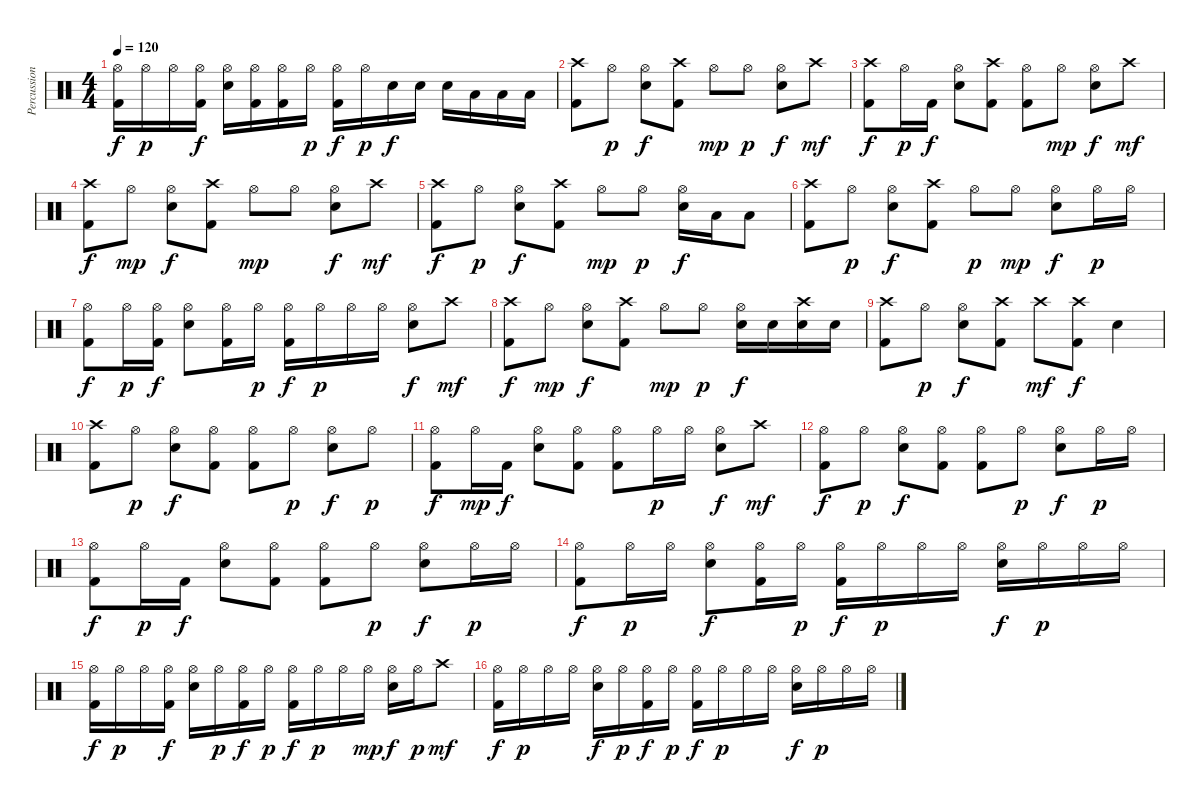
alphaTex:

\track ("Percussion" "Percussion") {instrument percussion}
\staff {score}
\articulation defaults
\ts (4 4)
\tempo 120
\clef neutral
\ks c
("Hi-Hat (open)" "Kick (hit) 2").16{dy f} "Hi-Hat (open)".16{dy p} "Hi-Hat (open)".16 ("Hi-Hat (open)" "Kick (hit) 2").16{dy f} ("Hi-Hat (open)" "Electric Snare (hit)").16 ("Hi-Hat (open)" "Kick (hit) 2").16 ("Hi-Hat (open)" "Kick (hit) 2").16 "Hi-Hat (open)".16{dy p} ("Hi-Hat (open)" "Kick (hit) 2").16{dy f} "Hi-Hat (open)".16{dy p} "Electric Snare (hit)".16{dy f} "Electric Snare (hit)".16 "Electric Snare (hit)".16 "Low Tom (hit)".16 "Low Tom (hit)".16 "Low Floor Tom (hit)".16 |
("Crash high (hit)" "Kick (hit) 2").8 "Hi-Hat (open)".8{dy p} ("Hi-Hat (open)" "Electric Snare (hit)").8{dy f} ("Crash high (hit)" "Kick (hit) 2").8 "Hi-Hat (open)".8{dy mp} "Hi-Hat (open)".8{dy p} ("Hi-Hat (open)" "Electric Snare (hit)").8{dy f} "Crash high (hit)".8{dy mf} |
("Crash high (hit)" "Kick (hit) 2").8{dy f} "Hi-Hat (open)".16{dy p} "Kick (hit) 2".16{dy f} ("Hi-Hat (open)" "Electric Snare (hit)").8 ("Crash high (hit)" "Kick (hit) 2").8 ("Hi-Hat (open)" "Kick (hit) 2").8 "Hi-Hat (open)".8{dy mp} ("Hi-Hat (open)" "Electric Snare (hit)").8{dy f} "Crash high (hit)".8{dy mf} |
("Crash high (hit)" "Kick (hit) 2").8{dy f} "Hi-Hat (open)".8{dy mp} ("Hi-Hat (open)" "Electric Snare (hit)").8{dy f} ("Crash high (hit)" "Kick (hit) 2").8 "Hi-Hat (open)".8{dy mp} "Hi-Hat (open)".8 ("Hi-Hat (open)" "Electric Snare (hit)").8{dy f} "Crash high (hit)".8{dy mf} |
("Crash high (hit)" "Kick (hit) 2").8{dy f} "Hi-Hat (open)".8{dy p} ("Hi-Hat (open)" "Electric Snare (hit)").8{dy f} ("Crash high (hit)" "Kick (hit) 2").8 "Hi-Hat (open)".8{dy mp} "Hi-Hat (open)".8{dy p} ("Hi-Hat (open)" "Electric Snare (hit)").16{dy f} "Low Tom (hit)".16 "Low Floor Tom (hit)".8 |
("Crash high (hit)" "Kick (hit) 2").8 "Hi-Hat (open)".8{dy p} ("Hi-Hat (open)" "Electric Snare (hit)").8{dy f} ("Crash high (hit)" "Kick (hit) 2").8 "Hi-Hat (open)".8{dy p} "Hi-Hat (open)".8{dy mp} ("Hi-Hat (open)" "Electric Snare (hit)").8{dy f} "Hi-Hat (open)".16{dy p} "Hi-Hat (open)".16 |
("Hi-Hat (open)" "Kick (hit) 2").8{dy f} "Hi-Hat (open)".16{dy p} ("Hi-Hat (open)" "Kick (hit) 2").16{dy f} ("Hi-Hat (open)" "Electric Snare (hit)").8 ("Hi-Hat (open)" "Kick (hit) 2").16 "Hi-Hat (open)".16{dy p} ("Hi-Hat (open)" "Kick (hit) 2").16{dy f} "Hi-Hat (open)".16{dy p} "Hi-Hat (open)".16 "Hi-Hat (open)".16 ("Hi-Hat (open)" "Electric Snare (hit)").8{dy f} "Crash high (hit)".8{dy mf} |
("Crash high (hit)" "Kick (hit) 2").8{dy f} "Hi-Hat (open)".8{dy mp} ("Hi-Hat (open)" "Electric Snare (hit)").8{dy f} ("Crash high (hit)" "Kick (hit) 2").8 "Hi-Hat (open)".8{dy mp} "Hi-Hat (open)".8{dy p} ("Hi-Hat (open)" "Electric Snare (hit)").16{dy f} "Electric Snare (hit)".16 ("Crash high (hit)" "Electric Snare (hit)").16 "Electric Snare (hit)".16 |
("Crash high (hit)" "Kick (hit) 2").8 "Hi-Hat (open)".8{dy p} ("Hi-Hat (open)" "Electric Snare (hit)").8{dy f} ("Crash high (hit)" "Kick (hit) 2").8 "Crash high (hit)".8{dy mf} ("Crash high (hit)" "Kick (hit) 2").8{dy f} "Electric Snare (hit)".4 |
("Crash high (hit)" "Kick (hit) 2").8 "Hi-Hat (open)".8{dy p} ("Hi-Hat (open)" "Electric Snare (hit)").8{dy f} ("Hi-Hat (open)" "Kick (hit) 2").8 ("Hi-Hat (open)" "Kick (hit) 2").8 "Hi-Hat (open)".8{dy p} ("Hi-Hat (open)" "Electric Snare (hit)").8{dy f} "Hi-Hat (open)".8{dy p} |
("Hi-Hat (open)" "Kick (hit) 2").8{dy f} "Hi-Hat (open)".16{dy mp} "Kick (hit) 2".16{dy f} ("Hi-Hat (open)" "Electric Snare (hit)").8 ("Hi-Hat (open)" "Kick (hit) 2").8 ("Hi-Hat (open)" "Kick (hit) 2").8 "Hi-Hat (open)".16{dy p} "Hi-Hat (open)".16 ("Hi-Hat (open)" "Electric Snare (hit)").8{dy f} "Crash high (hit)".8{dy mf} |
("Hi-Hat (open)" "Kick (hit) 2").8{dy f} "Hi-Hat (open)".8{dy p} ("Hi-Hat (open)" "Electric Snare (hit)").8{dy f} ("Hi-Hat (open)" "Kick (hit) 2").8 ("Hi-Hat (open)" "Kick (hit) 2").8 "Hi-Hat (open)".8{dy p} ("Hi-Hat (open)" "Electric Snare (hit)").8{dy f} "Hi-Hat (open)".16{dy p} "Hi-Hat (open)".16 |
("Hi-Hat (open)" "Kick (hit) 2").8{dy f} "Hi-Hat (open)".16{dy p} "Kick (hit) 2".16{dy f} ("Hi-Hat (open)" "Electric Snare (hit)").8 ("Hi-Hat (open)" "Kick (hit) 2").8 ("Hi-Hat (open)" "Kick (hit) 2").8 "Hi-Hat (open)".8{dy p} ("Hi-Hat (open)" "Electric Snare (hit)").8{dy f} "Hi-Hat (open)".16{dy p} "Hi-Hat (open)".16 |
("Hi-Hat (open)" "Kick (hit) 2").8{dy f} "Hi-Hat (open)".16{dy p} "Hi-Hat (open)".16 ("Hi-Hat (open)" "Electric Snare (hit)").8{dy f} ("Hi-Hat (open)" "Kick (hit) 2").16 "Hi-Hat (open)".16{dy p} ("Hi-Hat (open)" "Kick (hit) 2").16{dy f} "Hi-Hat (open)".16{dy p} "Hi-Hat (open)".16 "Hi-Hat (open)".16 ("Hi-Hat (open)" "Electric Snare (hit)").16{dy f} "Hi-Hat (open)".16{dy p} "Hi-Hat (open)".16 "Hi-Hat (open)".16 |
("Hi-Hat (open)" "Kick (hit) 2").16{dy f} "Hi-Hat (open)".16{dy p} "Hi-Hat (open)".16 ("Hi-Hat (open)" "Kick (hit) 2").16{dy f} ("Hi-Hat (open)" "Electric Snare (hit)").16 "Hi-Hat (open)".16{dy p} ("Hi-Hat (open)" "Kick (hit) 2").16{dy f} "Hi-Hat (open)".16{dy p} ("Hi-Hat (open)" "Kick (hit) 2").16{dy f} "Hi-Hat (open)".16{dy p} "Hi-Hat (open)".16 "Hi-Hat (open)".16{dy mp} ("Hi-Hat (open)" "Electric Snare (hit)").16{dy f} "Hi-Hat (open)".16{dy p} "Crash high (hit)".8{dy mf} |
("Hi-Hat (open)" "Kick (hit) 2").16{dy f} "Hi-Hat (open)".16{dy p} "Hi-Hat (open)".16 "Hi-Hat (open)".16 ("Hi-Hat (open)" "Electric Snare (hit)").16{dy f} "Hi-Hat (open)".16{dy p} ("Hi-Hat (open)" "Kick (hit) 2").16{dy f} "Hi-Hat (open)".16{dy p} ("Hi-Hat (open)" "Kick (hit) 2").16{dy f} "Hi-Hat (open)".16{dy p} "Hi-Hat (open)".16 "Hi-Hat (open)".16 ("Hi-Hat (open)" "Electric Snare (hit)").16{dy f} "Hi-Hat (open)".16{dy p} "Hi-Hat (open)".16 "Hi-Hat (open)".16
